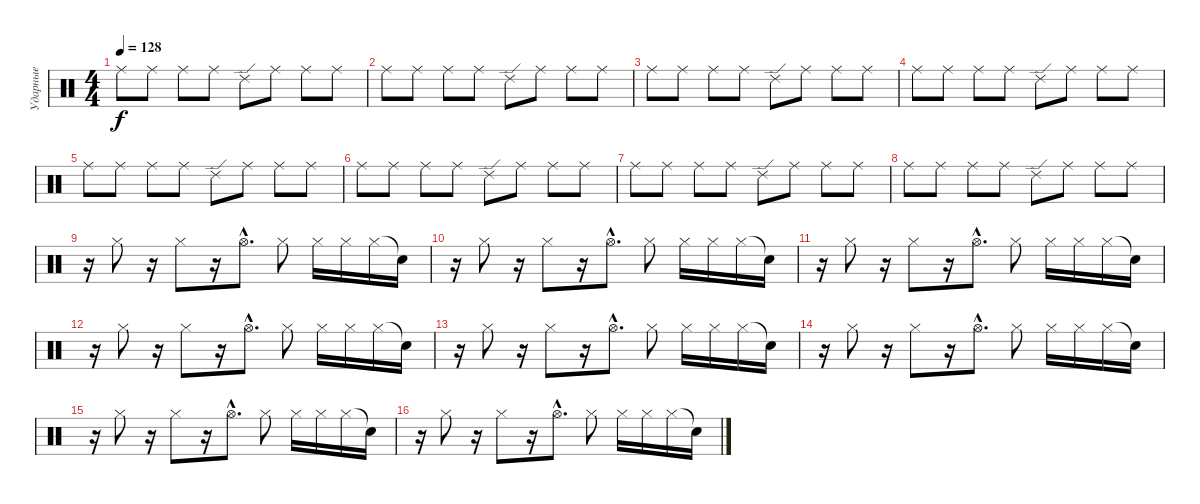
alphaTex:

\track ("Ударные" "Ударные") {instrument percussion}
\staff {score}
\articulation defaults
\ts (4 4)
\tempo 128
\clef neutral
\ks c "Ride (middle)".8{dy f} "Ride (middle)".8 "Ride (middle)".8 "Ride (middle)".8 "Ride (edge) 2".8 "Ride (middle)".8 "Ride (middle)".8 "Ride (middle)".8
|
"Ride (middle)".8 "Ride (middle)".8 "Ride (middle)".8 "Ride (middle)".8 "Ride (edge) 2".8 "Ride (middle)".8 "Ride (middle)".8 "Ride (middle)".8 |
"Ride (middle)".8 "Ride (middle)".8 "Ride (middle)".8 "Ride (middle)".8 "Ride (edge) 2".8 "Ride (middle)".8 "Ride (middle)".8 "Ride (middle)".8 |
"Ride (middle)".8 "Ride (middle)".8 "Ride (middle)".8 "Ride (middle)".8 "Ride (edge) 2".8 "Ride (middle)".8 "Ride (middle)".8 "Ride (middle)".8 |
"Ride (middle)".8 "Ride (middle)".8 "Ride (middle)".8 "Ride (middle)".8 "Ride (edge) 2".8 "Ride (middle)".8 "Ride (middle)".8 "Ride (middle)".8 |
"Ride (middle)".8 "Ride (middle)".8 "Ride (middle)".8 "Ride (middle)".8 "Ride (edge) 2".8 "Ride (middle)".8 "Ride (middle)".8 "Ride (middle)".8 |
"Ride (middle)".8 "Ride (middle)".8 "Ride (middle)".8 "Ride (middle)".8 "Ride (edge) 2".8 "Ride (middle)".8 "Ride (middle)".8 "Ride (middle)".8 |
"Ride (middle)".8 "Ride (middle)".8 "Ride (middle)".8 "Ride (middle)".8 "Ride (edge) 2".8 "Ride (middle)".8 "Ride (middle)".8 "Ride (middle)".8 |
r.16 "Hi-Hat (closed)".8 r.16 "Hi-Hat (closed)".8 r.16 "Hi-Hat (open)"{hac}.8{d} "Hi-Hat (closed)".8 "Hi-Hat (closed)".16 "Hi-Hat (closed)".16 "Hi-Hat (closed)".16 "Snare (hit)"{t}.16 |
r.16 "Hi-Hat (closed)".8 r.16 "Hi-Hat (closed)".8 r.16 "Hi-Hat (open)"{hac}.8{d} "Hi-Hat (closed)".8 "Hi-Hat (closed)".16 "Hi-Hat (closed)".16 "Hi-Hat (closed)".16 "Snare (hit)"{t}.16 |
r.16 "Hi-Hat (closed)".8 r.16 "Hi-Hat (closed)".8 r.16 "Hi-Hat (open)"{hac}.8{d} "Hi-Hat (closed)".8 "Hi-Hat (closed)".16 "Hi-Hat (closed)".16 "Hi-Hat (closed)".16 "Snare (hit)"{t}.16 |
r.16 "Hi-Hat (closed)".8 r.16 "Hi-Hat (closed)".8 r.16 "Hi-Hat (open)"{hac}.8{d} "Hi-Hat (closed)".8 "Hi-Hat (closed)".16 "Hi-Hat (closed)".16 "Hi-Hat (closed)".16 "Snare (hit)"{t}.16 |
r.16 "Hi-Hat (closed)".8 r.16 "Hi-Hat (closed)".8 r.16 "Hi-Hat (open)"{hac}.8{d} "Hi-Hat (closed)".8 "Hi-Hat (closed)".16 "Hi-Hat (closed)".16 "Hi-Hat (closed)".16 "Snare (hit)"{t}.16 |
r.16 "Hi-Hat (closed)".8 r.16 "Hi-Hat (closed)".8 r.16 "Hi-Hat (open)"{hac}.8{d} "Hi-Hat (closed)".8 "Hi-Hat (closed)".16 "Hi-Hat (closed)".16 "Hi-Hat (closed)".16 "Snare (hit)"{t}.16 |
r.16 "Hi-Hat (closed)".8 r.16 "Hi-Hat (closed)".8 r.16 "Hi-Hat (open)"{hac}.8{d} "Hi-Hat (closed)".8 "Hi-Hat (closed)".16 "Hi-Hat (closed)".16 "Hi-Hat (closed)".16 "Snare (hit)"{t}.16 |
r.16 "Hi-Hat (closed)".8 r.16 "Hi-Hat (closed)".8 r.16 "Hi-Hat (open)"{hac}.8{d} "Hi-Hat (closed)".8 "Hi-Hat (closed)".16 "Hi-Hat (closed)".16 "Hi-Hat (closed)".16 "Snare (hit)"{t}.16
